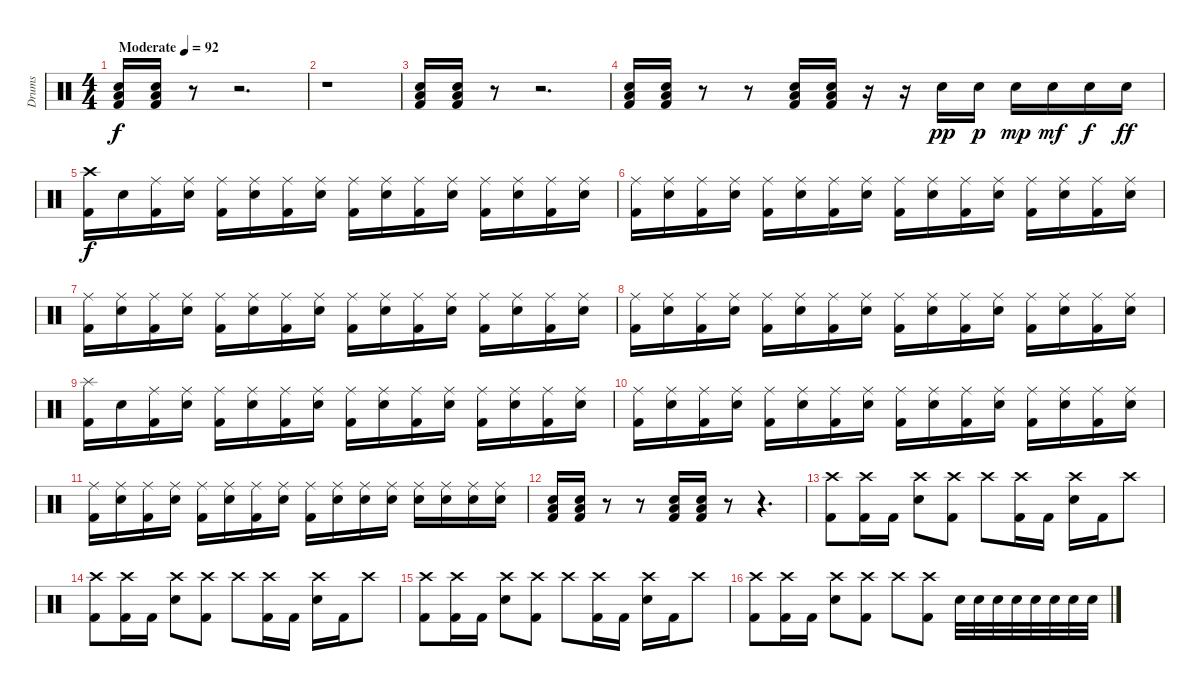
\track ("Drums" "Drums") {instrument percussion}
\staff {score}
\articulation defaults
\ts (4 4)
\tempo (92 "Moderate")
\clef neutral
\ks c
("Low Floor Tom (hit)" "Snare (hit) 2" "Kick (hit) 2").16{dy f} ("Low Floor Tom (hit)" "Snare (hit) 2" "Kick (hit) 2").16 r.8 r.2{d} |
r.1 |
("Low Floor Tom (hit)" "Snare (hit) 2" "Kick (hit) 2").16 ("Low Floor Tom (hit)" "Snare (hit) 2" "Kick (hit) 2").16 r.8 r.2{d} |
("Low Floor Tom (hit)" "Snare (hit) 2" "Kick (hit) 2").16 ("Low Floor Tom (hit)" "Snare (hit) 2" "Kick (hit) 2").16 r.8 r.8 ("Low Floor Tom (hit)" "Snare (hit) 2" "Kick (hit) 2").16 ("Low Floor Tom (hit)" "Snare (hit) 2" "Kick (hit) 2").16 r.16 r.16 "Snare (hit) 2".16{dy pp} "Snare (hit) 2".16{dy p} "Snare (hit) 2".16{dy mp} "Snare (hit) 2".16{dy mf} "Snare (hit) 2".16{dy f} "Snare (hit) 2".16{dy ff} |
("Crash high (hit)" "Kick (hit) 2").16{dy f} "Snare (hit) 2".16 ("Ride (middle)" "Kick (hit) 2").16 ("Ride (middle)" "Snare (hit) 2").16 ("Ride (middle)" "Kick (hit) 2").16 ("Ride (middle)" "Snare (hit) 2").16 ("Ride (middle)" "Kick (hit) 2").16 ("Ride (middle)" "Snare (hit) 2").16 ("Ride (middle)" "Kick (hit) 2").16 ("Ride (middle)" "Snare (hit) 2").16 ("Ride (middle)" "Kick (hit) 2").16 ("Ride (middle)" "Snare (hit) 2").16 ("Ride (middle)" "Kick (hit) 2").16 ("Ride (middle)" "Snare (hit) 2").16 ("Ride (middle)" "Kick (hit) 2").16 ("Ride (middle)" "Snare (hit) 2").16 |
("Ride (middle)" "Kick (hit) 2").16 ("Ride (middle)" "Snare (hit) 2").16 ("Ride (middle)" "Kick (hit) 2").16 ("Ride (middle)" "Snare (hit) 2").16 ("Ride (middle)" "Kick (hit) 2").16 ("Ride (middle)" "Snare (hit) 2").16 ("Ride (middle)" "Kick (hit) 2").16 ("Ride (middle)" "Snare (hit) 2").16 ("Ride (middle)" "Kick (hit) 2").16 ("Ride (middle)" "Snare (hit) 2").16 ("Ride (middle)" "Kick (hit) 2").16 ("Ride (middle)" "Snare (hit) 2").16 ("Ride (middle)" "Kick (hit) 2").16 ("Ride (middle)" "Snare (hit) 2").16 ("Ride (middle)" "Kick (hit) 2").16 ("Ride (middle)" "Snare (hit) 2").16 |
("Ride (middle)" "Kick (hit) 2").16 ("Ride (middle)" "Snare (hit) 2").16 ("Ride (middle)" "Kick (hit) 2").16 ("Ride (middle)" "Snare (hit) 2").16 ("Ride (middle)" "Kick (hit) 2").16 ("Ride (middle)" "Snare (hit) 2").16 ("Ride (middle)" "Kick (hit) 2").16 ("Ride (middle)" "Snare (hit) 2").16 ("Ride (middle)" "Kick (hit) 2").16 ("Ride (middle)" "Snare (hit) 2").16 ("Ride (middle)" "Kick (hit) 2").16 ("Ride (middle)" "Snare (hit) 2").16 ("Ride (middle)" "Kick (hit) 2").16 ("Ride (middle)" "Snare (hit) 2").16 ("Ride (middle)" "Kick (hit) 2").16 ("Ride (middle)" "Snare (hit) 2").16 |
("Ride (middle)" "Kick (hit) 2").16 ("Ride (middle)" "Snare (hit) 2").16 ("Ride (middle)" "Kick (hit) 2").16 ("Ride (middle)" "Snare (hit) 2").16 ("Ride (middle)" "Kick (hit) 2").16 ("Ride (middle)" "Snare (hit) 2").16 ("Ride (middle)" "Kick (hit) 2").16 ("Ride (middle)" "Snare (hit) 2").16 ("Ride (middle)" "Kick (hit) 2").16 ("Ride (middle)" "Snare (hit) 2").16 ("Ride (middle)" "Kick (hit) 2").16 ("Ride (middle)" "Snare (hit) 2").16 ("Ride (middle)" "Kick (hit) 2").16 ("Ride (middle)" "Snare (hit) 2").16 ("Ride (middle)" "Kick (hit) 2").16 ("Ride (middle)" "Snare (hit) 2").16 |
("Splash (hit)" "Kick (hit) 2").16 "Snare (hit) 2".16 ("Ride (middle)" "Kick (hit) 2").16 ("Ride (middle)" "Snare (hit) 2").16 ("Ride (middle)" "Kick (hit) 2").16 ("Ride (middle)" "Snare (hit) 2").16 ("Ride (middle)" "Kick (hit) 2").16 ("Ride (middle)" "Snare (hit) 2").16 ("Ride (middle)" "Kick (hit) 2").16 ("Ride (middle)" "Snare (hit) 2").16 ("Ride (middle)" "Kick (hit) 2").16 ("Ride (middle)" "Snare (hit) 2").16 ("Ride (middle)" "Kick (hit) 2").16 ("Ride (middle)" "Snare (hit) 2").16 ("Ride (middle)" "Kick (hit) 2").16 ("Ride (middle)" "Snare (hit) 2").16 |
("Ride (middle)" "Kick (hit) 2").16 ("Ride (middle)" "Snare (hit) 2").16 ("Ride (middle)" "Kick (hit) 2").16 ("Ride (middle)" "Snare (hit) 2").16 ("Ride (middle)" "Kick (hit) 2").16 ("Ride (middle)" "Snare (hit) 2").16 ("Ride (middle)" "Kick (hit) 2").16 ("Ride (middle)" "Snare (hit) 2").16 ("Ride (middle)" "Kick (hit) 2").16 ("Ride (middle)" "Snare (hit) 2").16 ("Ride (middle)" "Kick (hit) 2").16 ("Ride (middle)" "Snare (hit) 2").16 ("Ride (middle)" "Kick (hit) 2").16 ("Ride (middle)" "Snare (hit) 2").16 ("Ride (middle)" "Kick (hit) 2").16 ("Ride (middle)" "Snare (hit) 2").16 |
("Ride (middle)" "Kick (hit) 2").16 ("Ride (middle)" "Snare (hit) 2").16 ("Ride (middle)" "Kick (hit) 2").16 ("Ride (middle)" "Snare (hit) 2").16 ("Ride (middle)" "Kick (hit) 2").16 ("Ride (middle)" "Snare (hit) 2").16 ("Ride (middle)" "Kick (hit) 2").16 ("Ride (middle)" "Snare (hit) 2").16 ("Ride (middle)" "Kick (hit) 2").16 ("Ride (middle)" "Snare (hit) 2").16 ("Ride (middle)" "Snare (hit) 2").16 ("Ride (middle)" "Snare (hit) 2").16 ("Ride (middle)" "Snare (hit) 2").16 ("Ride (middle)" "Snare (hit) 2").16 ("Ride (middle)" "Snare (hit) 2").16 ("Ride (middle)" "Snare (hit) 2").16 |
("Low Floor Tom (hit)" "Snare (hit) 2" "Kick (hit) 2").16 ("Low Floor Tom (hit)" "Snare (hit) 2" "Kick (hit) 2").16 r.8 r.8 ("Low Floor Tom (hit)" "Snare (hit) 2" "Kick (hit) 2").16 ("Low Floor Tom (hit)" "Snare (hit) 2" "Kick (hit) 2").16 r.8 r.4{d} |
("Crash high (hit)" "Kick (hit) 2").8 ("Crash high (hit)" "Kick (hit) 2").16 "Kick (hit) 2".16 ("Crash high (hit)" "Snare (hit) 2").8 ("Crash high (hit)" "Kick (hit) 2").8 "Crash high (hit)".8 ("Crash high (hit)" "Kick (hit) 2").16 "Kick (hit) 2".16 ("Crash high (hit)" "Snare (hit) 2").16 "Kick (hit) 2".16 "Crash high (hit)".8 |
("Crash high (hit)" "Kick (hit) 2").8 ("Crash high (hit)" "Kick (hit) 2").16 "Kick (hit) 2".16 ("Crash high (hit)" "Snare (hit) 2").8 ("Crash high (hit)" "Kick (hit) 2").8 "Crash high (hit)".8 ("Crash high (hit)" "Kick (hit) 2").16 "Kick (hit) 2".16 ("Crash high (hit)" "Snare (hit) 2").16 "Kick (hit) 2".16 "Crash high (hit)".8 |
("Crash high (hit)" "Kick (hit) 2").8 ("Crash high (hit)" "Kick (hit) 2").16 "Kick (hit) 2".16 ("Crash high (hit)" "Snare (hit) 2").8 ("Crash high (hit)" "Kick (hit) 2").8 "Crash high (hit)".8 ("Crash high (hit)" "Kick (hit) 2").16 "Kick (hit) 2".16 ("Crash high (hit)" "Snare (hit) 2").16 "Kick (hit) 2".16 "Crash high (hit)".8 |
("Crash high (hit)" "Kick (hit) 2").8 ("Crash high (hit)" "Kick (hit) 2").16 "Kick (hit) 2".16 ("Crash high (hit)" "Snare (hit) 2").8 ("Crash high (hit)" "Kick (hit) 2").8 "Crash high (hit)".8 ("Crash high (hit)" "Kick (hit) 2").8 "Snare (hit) 2".32 "Snare (hit) 2".32 "Snare (hit) 2".32 "Snare (hit) 2".32 "Snare (hit) 2".32 "Snare (hit) 2".32 "Snare (hit) 2".32 "Snare (hit) 2".32
